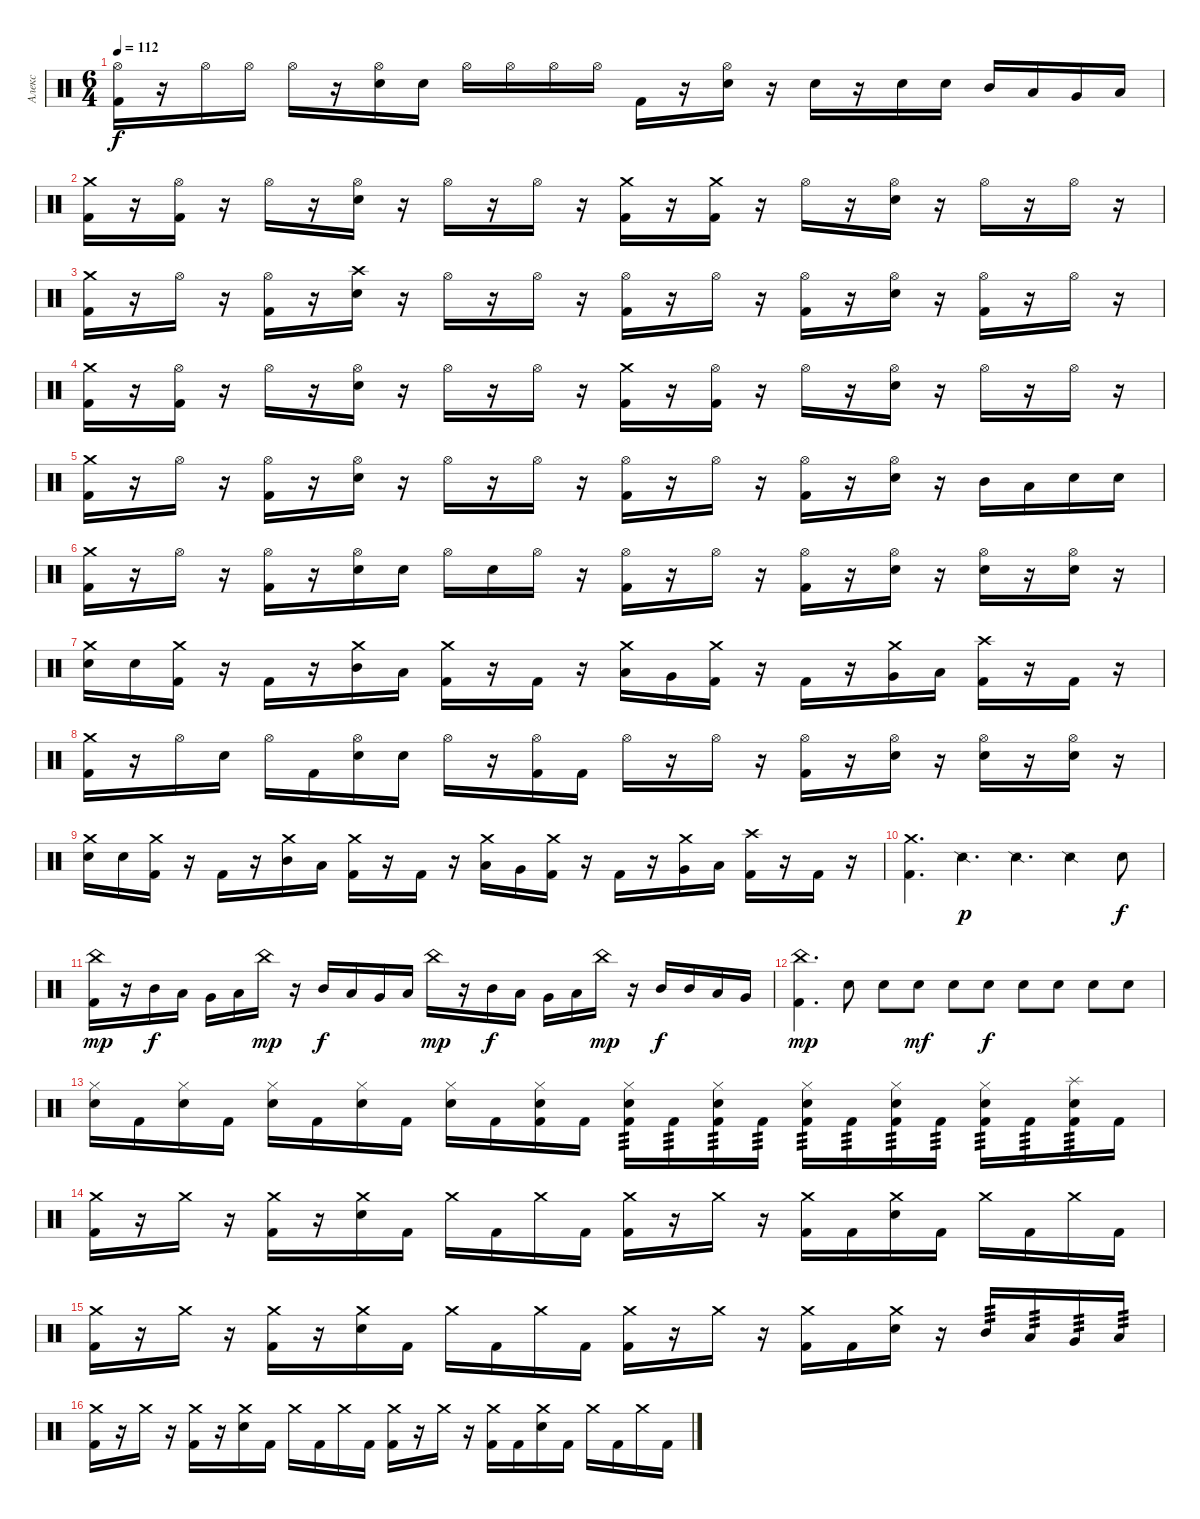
\track ("Алекс" "Алекс") {instrument percussion}
\staff {score}
\articulation defaults
\ts (6 4)
\tempo 112
\clef neutral
\ks c
("Hi-Hat (open)" "Kick (hit) 2").16{dy f} r.16 "Hi-Hat (open)".16 "Hi-Hat (open)".16 "Hi-Hat (open)".16 r.16 ("Hi-Hat (open)" "Electric Snare (hit)").16 "Electric Snare (hit)".16 "Hi-Hat (open)".16 "Hi-Hat (open)".16 "Hi-Hat (open)".16 "Hi-Hat (open)".16 "Kick (hit) 2".16 r.16 ("Hi-Hat (open)" "Electric Snare (hit)").16 r.16 "Electric Snare (hit)".16 r.16 "Electric Snare (hit)".16 "Electric Snare (hit)".16 "Mid Tom (hit)".16 "Low Tom (hit)".16 "Very Low Tom (hit)".16 "Low Floor Tom (hit)".16 |
("Crash medium (hit)" "Kick (hit) 2").16 r.16 ("Hi-Hat (open)" "Kick (hit) 2").16 r.16 "Hi-Hat (open)".16 r.16 ("Hi-Hat (open)" "Electric Snare (hit)").16 r.16 "Hi-Hat (open)".16 r.16 "Hi-Hat (open)".16 r.16 ("Crash medium (hit)" "Kick (hit) 2").16 r.16 ("Crash medium (hit)" "Kick (hit) 2").16 r.16 "Hi-Hat (open)".16 r.16 ("Hi-Hat (open)" "Electric Snare (hit)").16 r.16 "Hi-Hat (open)".16 r.16 "Hi-Hat (open)".16 r.16 |
("Crash medium (hit)" "Kick (hit) 2").16 r.16 "Hi-Hat (open)".16 r.16 ("Hi-Hat (open)" "Kick (hit) 2").16 r.16 ("Crash high (hit)" "Electric Snare (hit)").16 r.16 "Hi-Hat (open)".16 r.16 "Hi-Hat (open)".16 r.16 ("Hi-Hat (open)" "Kick (hit) 2").16 r.16 "Hi-Hat (open)".16 r.16 ("Hi-Hat (open)" "Kick (hit) 2").16 r.16 ("Hi-Hat (open)" "Electric Snare (hit)").16 r.16 ("Hi-Hat (open)" "Kick (hit) 2").16 r.16 "Hi-Hat (open)".16 r.16 |
("Crash medium (hit)" "Kick (hit) 2").16 r.16 ("Hi-Hat (open)" "Kick (hit) 2").16 r.16 "Hi-Hat (open)".16 r.16 ("Hi-Hat (open)" "Electric Snare (hit)").16 r.16 "Hi-Hat (open)".16 r.16 "Hi-Hat (open)".16 r.16 ("Crash medium (hit)" "Kick (hit) 2").16 r.16 ("Hi-Hat (open)" "Kick (hit) 2").16 r.16 "Hi-Hat (open)".16 r.16 ("Hi-Hat (open)" "Electric Snare (hit)").16 r.16 "Hi-Hat (open)".16 r.16 "Hi-Hat (open)".16 r.16 |
("Crash medium (hit)" "Kick (hit) 2").16 r.16 "Hi-Hat (open)".16 r.16 ("Hi-Hat (open)" "Kick (hit) 2").16 r.16 ("Hi-Hat (open)" "Electric Snare (hit)").16 r.16 "Hi-Hat (open)".16 r.16 "Hi-Hat (open)".16 r.16 ("Hi-Hat (open)" "Kick (hit) 2").16 r.16 "Hi-Hat (open)".16 r.16 ("Hi-Hat (open)" "Kick (hit) 2").16 r.16 ("Hi-Hat (open)" "Electric Snare (hit)").16 r.16 "Mid Tom (hit)".16 "Low Tom (hit)".16 "Electric Snare (hit)".16 "Electric Snare (hit)".16 |
("Crash medium (hit)" "Kick (hit) 2").16 r.16 "Hi-Hat (open)".16 r.16 ("Hi-Hat (open)" "Kick (hit) 2").16 r.16 ("Hi-Hat (open)" "Electric Snare (hit)").16 "Electric Snare (hit)".16 "Hi-Hat (open)".16 "Electric Snare (hit)".16 "Hi-Hat (open)".16 r.16 ("Hi-Hat (open)" "Kick (hit) 2").16 r.16 "Hi-Hat (open)".16 r.16 ("Hi-Hat (open)" "Kick (hit) 2").16 r.16 ("Hi-Hat (open)" "Electric Snare (hit)").16 r.16 ("Hi-Hat (open)" "Electric Snare (hit)").16 r.16 ("Hi-Hat (open)" "Electric Snare (hit)").16 r.16 |
("Crash medium (hit)" "Electric Snare (hit)").16 "Electric Snare (hit)".16 ("Crash medium (hit)" "Kick (hit) 2").16 r.16 "Kick (hit) 2".16 r.16 ("Crash medium (hit)" "Mid Tom (hit)").16 "Low Tom (hit)".16 ("Crash medium (hit)" "Kick (hit) 2").16 r.16 "Kick (hit) 2".16 r.16 ("Crash medium (hit)" "Low Tom (hit)").16 "Very Low Tom (hit)".16 ("Crash medium (hit)" "Kick (hit) 2").16 r.16 "Kick (hit) 2".16 r.16 ("Crash medium (hit)" "Very Low Tom (hit)").16 "Low Floor Tom (hit)".16 ("Crash high (hit)" "Kick (hit) 2").16 r.16 "Kick (hit) 2".16 r.16 |
("Crash medium (hit)" "Kick (hit) 2").16 r.16 "Hi-Hat (open)".16 "Electric Snare (hit)".16 "Hi-Hat (open)".16 "Kick (hit) 2".16 ("Hi-Hat (open)" "Electric Snare (hit)").16 "Electric Snare (hit)".16 "Hi-Hat (open)".16 r.16 ("Hi-Hat (open)" "Kick (hit) 2").16 "Kick (hit) 2".16 "Hi-Hat (open)".16 r.16 "Hi-Hat (open)".16 r.16 ("Hi-Hat (open)" "Kick (hit) 2").16 r.16 ("Hi-Hat (open)" "Electric Snare (hit)").16 r.16 ("Hi-Hat (open)" "Electric Snare (hit)").16 r.16 ("Hi-Hat (open)" "Electric Snare (hit)").16 r.16 |
("Crash medium (hit)" "Electric Snare (hit)").16 "Electric Snare (hit)".16 ("Crash medium (hit)" "Kick (hit) 2").16 r.16 "Kick (hit) 2".16 r.16 ("Crash medium (hit)" "Mid Tom (hit)").16 "Low Tom (hit)".16 ("Crash medium (hit)" "Kick (hit) 2").16 r.16 "Kick (hit) 2".16 r.16 ("Crash medium (hit)" "Low Tom (hit)").16 "Very Low Tom (hit)".16 ("Crash medium (hit)" "Kick (hit) 2").16 r.16 "Kick (hit) 2".16 r.16 ("Crash medium (hit)" "Very Low Tom (hit)").16 "Low Floor Tom (hit)".16 ("Crash high (hit)" "Kick (hit) 2").16 r.16 "Kick (hit) 2".16 r.16 |
("Crash medium (hit)" "Kick (hit) 2").4{d} "Snare (side stick) 2".4{d dy p} "Snare (side stick) 2".4{d} "Snare (side stick) 2".4 "Electric Snare (hit)".8{dy f} |
("China (hit)" "Kick (hit) 2").16{dy mp} r.16 "Mid Tom (hit)".16{dy f} "Low Tom (hit)".16 "Very Low Tom (hit)".16 "Low Floor Tom (hit)".16 "China (hit)".16{dy mp} r.16 "Mid Tom (hit)".16{dy f} "Low Tom (hit)".16 "Very Low Tom (hit)".16 "Low Floor Tom (hit)".16 "China (hit)".16{dy mp} r.16 "Mid Tom (hit)".16{dy f} "Low Tom (hit)".16 "Very Low Tom (hit)".16 "Low Floor Tom (hit)".16 "China (hit)".16{dy mp} r.16 "Mid Tom (hit)".16{dy f} "Mid Tom (hit)".16 "Low Tom (hit)".16 "Very Low Tom (hit)".16 |
("China (hit)" "Kick (hit) 2").4{d dy mp} "Electric Snare (hit)".8{volume 1} "Electric Snare (hit)".8{volume 4} "Electric Snare (hit)".8{dy mf} "Electric Snare (hit)".8 "Electric Snare (hit)".8{dy f} "Electric Snare (hit)".8 "Electric Snare (hit)".8 "Electric Snare (hit)".8 "Electric Snare (hit)".8 |
("Hi-Hat (closed)" "Electric Snare (hit)").16{volume 8} "Kick (hit) 2".16 ("Hi-Hat (closed)" "Electric Snare (hit)").16 "Kick (hit) 2".16 ("Hi-Hat (closed)" "Electric Snare (hit)").16 "Kick (hit) 2".16 ("Hi-Hat (closed)" "Electric Snare (hit)").16 "Kick (hit) 2".16 ("Hi-Hat (closed)" "Electric Snare (hit)").16 "Kick (hit) 2".16 ("Hi-Hat (closed)" "Electric Snare (hit)" "Kick (hit) 2").16 "Kick (hit) 2".16 ("Hi-Hat (closed)" "Electric Snare (hit)" "Kick (hit) 2").16{tp 3} "Kick (hit) 2".16{tp 3} ("Hi-Hat (closed)" "Electric Snare (hit)" "Kick (hit) 2").16{tp 3} "Kick (hit) 2".16{tp 3} ("Hi-Hat (closed)" "Electric Snare (hit)" "Kick (hit) 2").16{tp 3} "Kick (hit) 2".16{tp 3} ("Hi-Hat (closed)" "Electric Snare (hit)" "Kick (hit) 2").16{tp 3} "Kick (hit) 2".16{tp 3} ("Hi-Hat (closed)" "Electric Snare (hit)" "Kick (hit) 2").16{tp 3} "Kick (hit) 2".16{tp 3} ("Splash (hit)" "Electric Snare (hit)" "Kick (hit) 2").16{tp 3} "Kick (hit) 2".16 |
("Crash medium (hit)" "Kick (hit) 2").16 r.16 "Crash medium (hit)".16 r.16 ("Crash medium (hit)" "Kick (hit) 2").16 r.16 ("Crash medium (hit)" "Electric Snare (hit)").16 "Kick (hit) 2".16 "Crash medium (hit)".16 "Kick (hit) 2".16 "Crash medium (hit)".16 "Kick (hit) 2".16 ("Crash medium (hit)" "Kick (hit) 2").16 r.16 "Crash medium (hit)".16 r.16 ("Crash medium (hit)" "Kick (hit) 2").16 "Kick (hit) 2".16 ("Crash medium (hit)" "Electric Snare (hit)").16 "Kick (hit) 2".16 "Crash medium (hit)".16 "Kick (hit) 2".16 "Crash medium (hit)".16 "Kick (hit) 2".16 |
("Crash medium (hit)" "Kick (hit) 2").16 r.16 "Crash medium (hit)".16 r.16 ("Crash medium (hit)" "Kick (hit) 2").16 r.16 ("Crash medium (hit)" "Electric Snare (hit)").16 "Kick (hit) 2".16 "Crash medium (hit)".16 "Kick (hit) 2".16 "Crash medium (hit)".16 "Kick (hit) 2".16 ("Crash medium (hit)" "Kick (hit) 2").16 r.16 "Crash medium (hit)".16 r.16 ("Crash medium (hit)" "Kick (hit) 2").16 "Kick (hit) 2".16 ("Crash medium (hit)" "Electric Snare (hit)").16 r.16 "Mid Tom (hit)".16{tp 3} "Low Tom (hit)".16{tp 3} "Very Low Tom (hit)".16{tp 3} "Low Tom (hit)".16{tp 3} |
("Crash medium (hit)" "Kick (hit) 2").16 r.16 "Crash medium (hit)".16 r.16 ("Crash medium (hit)" "Kick (hit) 2").16 r.16 ("Crash medium (hit)" "Electric Snare (hit)").16 "Kick (hit) 2".16 "Crash medium (hit)".16 "Kick (hit) 2".16 "Crash medium (hit)".16 "Kick (hit) 2".16 ("Crash medium (hit)" "Kick (hit) 2").16 r.16 "Crash medium (hit)".16 r.16 ("Crash medium (hit)" "Kick (hit) 2").16 "Kick (hit) 2".16 ("Crash medium (hit)" "Electric Snare (hit)").16 "Kick (hit) 2".16 "Crash medium (hit)".16 "Kick (hit) 2".16 "Crash medium (hit)".16 "Kick (hit) 2".16
